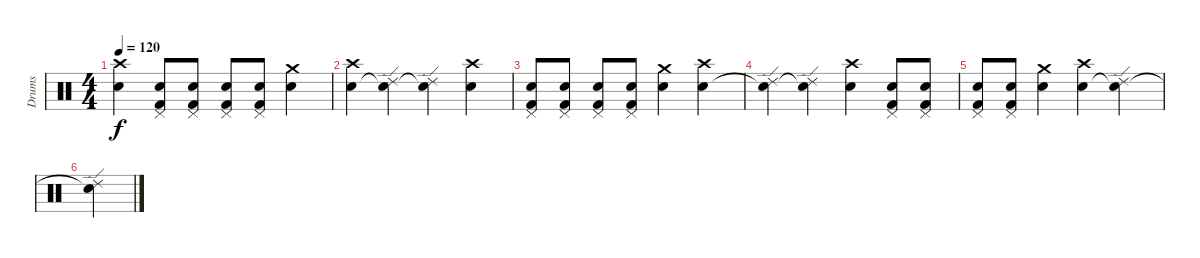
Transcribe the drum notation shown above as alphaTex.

\track ("Drums" "Drums") {instrument percussion}
\staff {score}
\articulation defaults
\ts (4 4)
\tempo 120
\clef neutral
\ks c
("Crash high (hit)" "Snare (hit) 2").4{dy f} ("Kick (hit) 2" "Pedal Hi-Hat (hit)" "Snare (hit) 2").8 ("Kick (hit) 2" "Pedal Hi-Hat (hit)" "Snare (hit) 2").8 ("Kick (hit) 2" "Pedal Hi-Hat (hit)" "Snare (hit) 2").8 ("Kick (hit) 2" "Pedal Hi-Hat (hit)" "Snare (hit) 2").8 ("Crash medium (hit)" "Snare (hit) 2").4 |
("Crash high (hit)" "Snare (hit) 2").4 ("Ride (edge) 2" "Snare (hit)"{t}).4 ("Ride (edge) 2" "Snare (hit)"{t}).4 ("Crash high (hit)" "Snare (hit) 2").4 |
("Kick (hit) 2" "Pedal Hi-Hat (hit)" "Snare (hit) 2").8 ("Kick (hit) 2" "Pedal Hi-Hat (hit)" "Snare (hit) 2").8 ("Kick (hit) 2" "Pedal Hi-Hat (hit)" "Snare (hit) 2").8 ("Kick (hit) 2" "Pedal Hi-Hat (hit)" "Snare (hit) 2").8 ("Crash medium (hit)" "Snare (hit) 2").4 ("Crash high (hit)" "Snare (hit) 2").4 |
("Ride (edge) 2" "Snare (hit)"{t}).4 ("Ride (edge) 2" "Snare (hit)"{t}).4 ("Crash high (hit)" "Snare (hit) 2").4 ("Kick (hit) 2" "Pedal Hi-Hat (hit)" "Snare (hit) 2").8 ("Kick (hit) 2" "Pedal Hi-Hat (hit)" "Snare (hit) 2").8 |
("Kick (hit) 2" "Pedal Hi-Hat (hit)" "Snare (hit) 2").8 ("Kick (hit) 2" "Pedal Hi-Hat (hit)" "Snare (hit) 2").8 ("Crash medium (hit)" "Snare (hit) 2").4 ("Crash high (hit)" "Snare (hit) 2").4 ("Ride (edge) 2" "Snare (hit)"{t}).4 |
("Ride (edge) 2" "Snare (hit)"{t}).4
